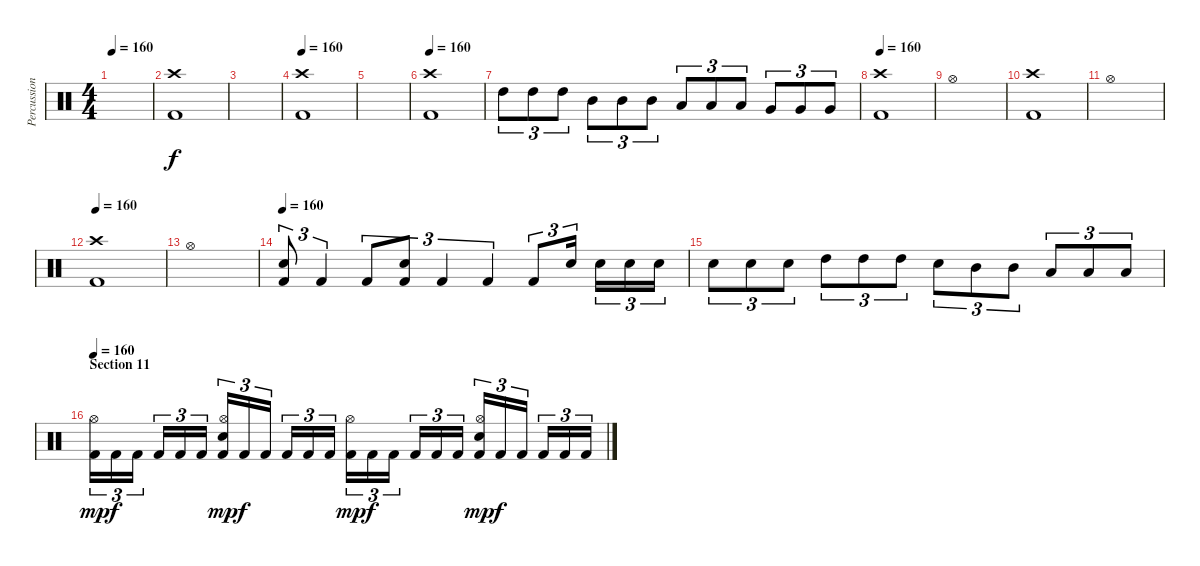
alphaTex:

\track ("Percussion" "Percussion") {instrument percussion}
\staff {score}
\articulation defaults
\ts (4 4)
\tempo 160
\clef neutral
\ks c
|
("Crash high (hit)" "Kick (hit) 2").1 |
|
\tempo 160
("Crash high (hit)" "Kick (hit) 2").1 |
|
\tempo 160
("Crash high (hit)" "Kick (hit) 2").1 |
"High Tom (hit)".8{tu (3 2)} "High Tom (hit)".8{tu (3 2)} "High Tom (hit)".8{tu (3 2)} "Mid Tom (hit)".8{tu (3 2)} "Mid Tom (hit)".8{tu (3 2)} "Mid Tom (hit)".8{tu (3 2)} "Low Tom (hit)".8{tu (3 2)} "Low Tom (hit)".8{tu (3 2)} "Low Tom (hit)".8{tu (3 2)} "Very Low Tom (hit)".8{tu (3 2)} "Very Low Tom (hit)".8{tu (3 2)} "Very Low Tom (hit)".8{tu (3 2)} |
\tempo 160
("Crash high (hit)" "Kick (hit) 2").1 |
"Hi-Hat (open)".1 |
("Crash high (hit)" "Kick (hit) 2").1 |
"Hi-Hat (open)".1 |
\tempo 160
("Crash high (hit)" "Kick (hit) 2").1 |
"Hi-Hat (open)".1 |
\tempo 160
("Electric Snare (hit)" "Kick (hit) 2").8{tu (3 2)} "Kick (hit) 2".4{tu (3 2)} "Kick (hit) 2".8{tu (3 2)} ("Electric Snare (hit)" "Kick (hit) 2").8{tu (3 2)} "Kick (hit) 2".4{tu (3 2)} "Kick (hit) 2".4{tu (3 2)} "Kick (hit) 2".8{tu (3 2)} "Electric Snare (hit)".16{tu (3 2)} "Electric Snare (hit)".16{tu (3 2)} "Electric Snare (hit)".16{tu (3 2)} "Electric Snare (hit)".16{tu (3 2)} |
"Electric Snare (hit)".8{tu (3 2)} "Electric Snare (hit)".8{tu (3 2)} "Electric Snare (hit)".8{tu (3 2)} "High Tom (hit)".8{tu (3 2)} "High Tom (hit)".8{tu (3 2)} "High Tom (hit)".8{tu (3 2)} "Electric Snare (hit)".8{tu (3 2)} "Mid Tom (hit)".8{tu (3 2)} "Mid Tom (hit)".8{tu (3 2)} "Low Tom (hit)".8{tu (3 2)} "Low Tom (hit)".8{tu (3 2)} "Low Tom (hit)".8{tu (3 2)} |
\section ("" "Section 11")
\tempo 160
("Hi-Hat (open)" "Kick (hit) 2").16{tu (3 2) dy mp} "Kick (hit) 2".16{tu (3 2) dy f} "Kick (hit) 2".16{tu (3 2)} "Kick (hit) 2".16{tu (3 2)} "Kick (hit) 2".16{tu (3 2)} "Kick (hit) 2".16{tu (3 2)} ("Hi-Hat (open)" "Electric Snare (hit)" "Kick (hit) 2").16{tu (3 2) dy mp} "Kick (hit) 2".16{tu (3 2) dy f} "Kick (hit) 2".16{tu (3 2)} "Kick (hit) 2".16{tu (3 2)} "Kick (hit) 2".16{tu (3 2)} "Kick (hit) 2".16{tu (3 2)} ("Hi-Hat (open)" "Kick (hit) 2").16{tu (3 2) dy mp} "Kick (hit) 2".16{tu (3 2) dy f} "Kick (hit) 2".16{tu (3 2)} "Kick (hit) 2".16{tu (3 2)} "Kick (hit) 2".16{tu (3 2)} "Kick (hit) 2".16{tu (3 2)} ("Hi-Hat (open)" "Electric Snare (hit)" "Kick (hit) 2").16{tu (3 2) dy mp} "Kick (hit) 2".16{tu (3 2) dy f} "Kick (hit) 2".16{tu (3 2)} "Kick (hit) 2".16{tu (3 2)} "Kick (hit) 2".16{tu (3 2)} "Kick (hit) 2".16{tu (3 2)}
